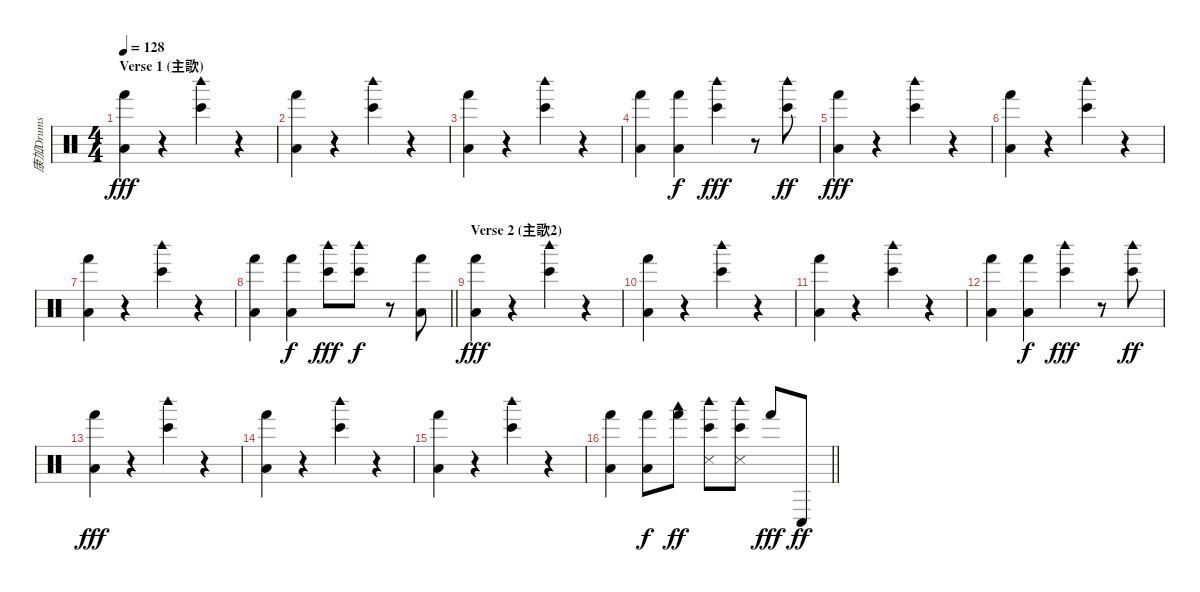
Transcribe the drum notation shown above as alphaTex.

\track ("康加Drums" "康加Drums") {instrument percussion}
\staff {score}
\articulation defaults
\ts (4 4)
\section ("" "Verse 1 (主歌)")
\tempo 128
\clef neutral
\ks c
("Hand (hit)" "Low Floor Tom (hit)").4{dy fff} r.4 ("Bongo High (hit)" "Woodblock high (hit)").4 r.4 |
("Hand (hit)" "Low Floor Tom (hit)").4 r.4 ("Bongo High (hit)" "Woodblock high (hit)").4 r.4 |
("Hand (hit)" "Low Floor Tom (hit)").4 r.4 ("Bongo High (hit)" "Woodblock high (hit)").4 r.4 |
("Hand (hit)" "Low Floor Tom (hit)").4 ("Hand (hit)" "Low Floor Tom (hit)").4{dy f} ("Bongo High (hit)" "Woodblock high (hit)").4{dy fff} r.8 ("Bongo High (hit)" "Woodblock high (hit)").8{dy ff} |
("Hand (hit)" "Low Floor Tom (hit)").4{dy fff} r.4 ("Bongo High (hit)" "Woodblock high (hit)").4 r.4 |
("Hand (hit)" "Low Floor Tom (hit)").4 r.4 ("Bongo High (hit)" "Woodblock high (hit)").4 r.4 |
("Hand (hit)" "Low Floor Tom (hit)").4 r.4 ("Bongo High (hit)" "Woodblock high (hit)").4 r.4 |
\barLineRight lightlight
("Hand (hit)" "Low Floor Tom (hit)").4 ("Hand (hit)" "Low Floor Tom (hit)").4{dy f} ("Bongo High (hit)" "Woodblock high (hit)").8{dy fff} ("Bongo High (hit)" "Woodblock high (hit)").8{dy f} r.8 ("Hand (hit)" "Low Floor Tom (hit)").8 |
\section ("" "Verse 2 (主歌2)")
("Hand (hit)" "Low Floor Tom (hit)").4{dy fff} r.4 ("Bongo High (hit)" "Woodblock high (hit)").4 r.4 |
("Hand (hit)" "Low Floor Tom (hit)").4 r.4 ("Bongo High (hit)" "Woodblock high (hit)").4 r.4 |
("Hand (hit)" "Low Floor Tom (hit)").4 r.4 ("Bongo High (hit)" "Woodblock high (hit)").4 r.4 |
("Hand (hit)" "Low Floor Tom (hit)").4 ("Hand (hit)" "Low Floor Tom (hit)").4{dy f} ("Bongo High (hit)" "Woodblock high (hit)").4{dy fff} r.8 ("Bongo High (hit)" "Woodblock high (hit)").8{dy ff} |
("Hand (hit)" "Low Floor Tom (hit)").4{dy fff} r.4 ("Bongo High (hit)" "Woodblock high (hit)").4 r.4 |
("Hand (hit)" "Low Floor Tom (hit)").4 r.4 ("Bongo High (hit)" "Woodblock high (hit)").4 r.4 |
("Hand (hit)" "Low Floor Tom (hit)").4 r.4 ("Bongo High (hit)" "Woodblock high (hit)").4 r.4 |
\barLineRight lightlight
("Hand (hit)" "Low Floor Tom (hit)").4 ("Hand (hit)" "Low Floor Tom (hit)").8{dy f} ("Hand (hit)" "Woodblock low (hit)").8{dy ff} ("Bongo High (hit)" "Woodblock high (hit)" "Snare (side stick) 3").8 ("Bongo High (hit)" "Woodblock high (hit)" "Snare (side stick) 3").8 "Hand (hit)".8{dy fff} "Conga low (hit)".8{dy ff}
